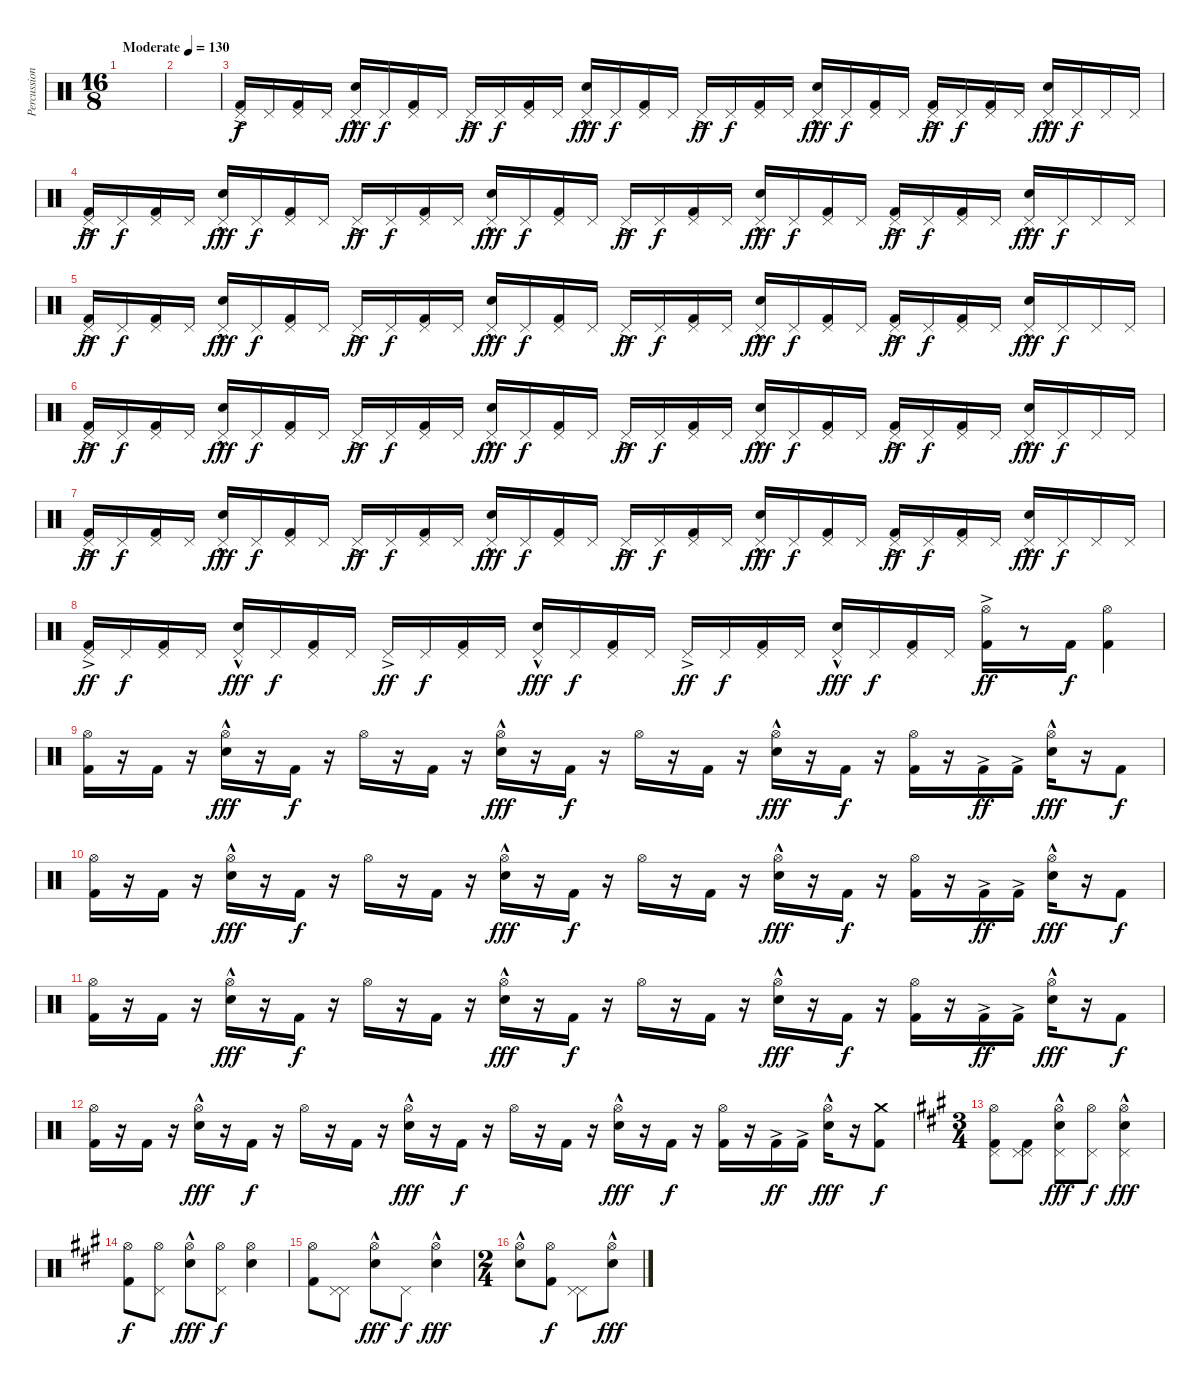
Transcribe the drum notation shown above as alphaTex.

\track ("Percussion" "Percussion") {instrument percussion bank 110}
\staff {score}
\articulation defaults
\ts (16 8)
\tempo (130 "Moderate")
\clef neutral
\ks c
|
|
("Pedal Hi-Hat (hit)"{ac} "Kick (hit) 2").16 "Pedal Hi-Hat (hit)".16{dy f} ("Pedal Hi-Hat (hit)" "Kick (hit) 2").16 "Pedal Hi-Hat (hit)".16 ("Pedal Hi-Hat (hit)"{hac} "Electric Snare (hit)"{hac}).16{dy fff} "Pedal Hi-Hat (hit)".16{dy f} ("Pedal Hi-Hat (hit)" "Kick (hit) 2").16 "Pedal Hi-Hat (hit)".16 "Pedal Hi-Hat (hit)"{ac}.16{dy ff} "Pedal Hi-Hat (hit)".16{dy f} ("Pedal Hi-Hat (hit)" "Kick (hit) 2").16 "Pedal Hi-Hat (hit)".16 ("Pedal Hi-Hat (hit)"{hac} "Electric Snare (hit)"{hac}).16{dy fff} "Pedal Hi-Hat (hit)".16{dy f} ("Pedal Hi-Hat (hit)" "Kick (hit) 2").16 "Pedal Hi-Hat (hit)".16 "Pedal Hi-Hat (hit)"{ac}.16{dy ff} "Pedal Hi-Hat (hit)".16{dy f} ("Pedal Hi-Hat (hit)" "Kick (hit) 2").16 "Pedal Hi-Hat (hit)".16 ("Pedal Hi-Hat (hit)"{hac} "Electric Snare (hit)"{hac}).16{dy fff} "Pedal Hi-Hat (hit)".16{dy f} ("Pedal Hi-Hat (hit)" "Kick (hit) 2").16 "Pedal Hi-Hat (hit)".16 ("Pedal Hi-Hat (hit)"{ac} "Kick (hit) 2").16{dy ff} "Pedal Hi-Hat (hit)".16{dy f} ("Pedal Hi-Hat (hit)" "Kick (hit) 2").16 "Pedal Hi-Hat (hit)".16 ("Pedal Hi-Hat (hit)"{hac} "Electric Snare (hit)"{hac}).16{dy fff} "Pedal Hi-Hat (hit)".16{dy f} "Pedal Hi-Hat (hit)".16 "Pedal Hi-Hat (hit)".16 |
("Pedal Hi-Hat (hit)"{ac} "Kick (hit) 2").16{dy ff} "Pedal Hi-Hat (hit)".16{dy f} ("Pedal Hi-Hat (hit)" "Kick (hit) 2").16 "Pedal Hi-Hat (hit)".16 ("Pedal Hi-Hat (hit)"{hac} "Electric Snare (hit)"{hac}).16{dy fff} "Pedal Hi-Hat (hit)".16{dy f} ("Pedal Hi-Hat (hit)" "Kick (hit) 2").16 "Pedal Hi-Hat (hit)".16 "Pedal Hi-Hat (hit)"{ac}.16{dy ff} "Pedal Hi-Hat (hit)".16{dy f} ("Pedal Hi-Hat (hit)" "Kick (hit) 2").16 "Pedal Hi-Hat (hit)".16 ("Pedal Hi-Hat (hit)"{hac} "Electric Snare (hit)"{hac}).16{dy fff} "Pedal Hi-Hat (hit)".16{dy f} ("Pedal Hi-Hat (hit)" "Kick (hit) 2").16 "Pedal Hi-Hat (hit)".16 "Pedal Hi-Hat (hit)"{ac}.16{dy ff} "Pedal Hi-Hat (hit)".16{dy f} ("Pedal Hi-Hat (hit)" "Kick (hit) 2").16 "Pedal Hi-Hat (hit)".16 ("Pedal Hi-Hat (hit)"{hac} "Electric Snare (hit)"{hac}).16{dy fff} "Pedal Hi-Hat (hit)".16{dy f} ("Pedal Hi-Hat (hit)" "Kick (hit) 2").16 "Pedal Hi-Hat (hit)".16 ("Pedal Hi-Hat (hit)"{ac} "Kick (hit) 2").16{dy ff} "Pedal Hi-Hat (hit)".16{dy f} ("Pedal Hi-Hat (hit)" "Kick (hit) 2").16 "Pedal Hi-Hat (hit)".16 ("Pedal Hi-Hat (hit)"{hac} "Electric Snare (hit)"{hac}).16{dy fff} "Pedal Hi-Hat (hit)".16{dy f} "Pedal Hi-Hat (hit)".16 "Pedal Hi-Hat (hit)".16 |
("Pedal Hi-Hat (hit)"{ac} "Kick (hit) 2").16{dy ff} "Pedal Hi-Hat (hit)".16{dy f} ("Pedal Hi-Hat (hit)" "Kick (hit) 2").16 "Pedal Hi-Hat (hit)".16 ("Pedal Hi-Hat (hit)"{hac} "Electric Snare (hit)"{hac}).16{dy fff} "Pedal Hi-Hat (hit)".16{dy f} ("Pedal Hi-Hat (hit)" "Kick (hit) 2").16 "Pedal Hi-Hat (hit)".16 "Pedal Hi-Hat (hit)"{ac}.16{dy ff} "Pedal Hi-Hat (hit)".16{dy f} ("Pedal Hi-Hat (hit)" "Kick (hit) 2").16 "Pedal Hi-Hat (hit)".16 ("Pedal Hi-Hat (hit)"{hac} "Electric Snare (hit)"{hac}).16{dy fff} "Pedal Hi-Hat (hit)".16{dy f} ("Pedal Hi-Hat (hit)" "Kick (hit) 2").16 "Pedal Hi-Hat (hit)".16 "Pedal Hi-Hat (hit)"{ac}.16{dy ff} "Pedal Hi-Hat (hit)".16{dy f} ("Pedal Hi-Hat (hit)" "Kick (hit) 2").16 "Pedal Hi-Hat (hit)".16 ("Pedal Hi-Hat (hit)"{hac} "Electric Snare (hit)"{hac}).16{dy fff} "Pedal Hi-Hat (hit)".16{dy f} ("Pedal Hi-Hat (hit)" "Kick (hit) 2").16 "Pedal Hi-Hat (hit)".16 ("Pedal Hi-Hat (hit)"{ac} "Kick (hit) 2").16{dy ff} "Pedal Hi-Hat (hit)".16{dy f} ("Pedal Hi-Hat (hit)" "Kick (hit) 2").16 "Pedal Hi-Hat (hit)".16 ("Pedal Hi-Hat (hit)"{hac} "Electric Snare (hit)"{hac}).16{dy fff} "Pedal Hi-Hat (hit)".16{dy f} "Pedal Hi-Hat (hit)".16 "Pedal Hi-Hat (hit)".16 |
("Pedal Hi-Hat (hit)"{ac} "Kick (hit) 2").16{dy ff} "Pedal Hi-Hat (hit)".16{dy f} ("Pedal Hi-Hat (hit)" "Kick (hit) 2").16 "Pedal Hi-Hat (hit)".16 ("Pedal Hi-Hat (hit)"{hac} "Electric Snare (hit)"{hac}).16{dy fff} "Pedal Hi-Hat (hit)".16{dy f} ("Pedal Hi-Hat (hit)" "Kick (hit) 2").16 "Pedal Hi-Hat (hit)".16 "Pedal Hi-Hat (hit)"{ac}.16{dy ff} "Pedal Hi-Hat (hit)".16{dy f} ("Pedal Hi-Hat (hit)" "Kick (hit) 2").16 "Pedal Hi-Hat (hit)".16 ("Pedal Hi-Hat (hit)"{hac} "Electric Snare (hit)"{hac}).16{dy fff} "Pedal Hi-Hat (hit)".16{dy f} ("Pedal Hi-Hat (hit)" "Kick (hit) 2").16 "Pedal Hi-Hat (hit)".16 "Pedal Hi-Hat (hit)"{ac}.16{dy ff} "Pedal Hi-Hat (hit)".16{dy f} ("Pedal Hi-Hat (hit)" "Kick (hit) 2").16 "Pedal Hi-Hat (hit)".16 ("Pedal Hi-Hat (hit)"{hac} "Electric Snare (hit)"{hac}).16{dy fff} "Pedal Hi-Hat (hit)".16{dy f} ("Pedal Hi-Hat (hit)" "Kick (hit) 2").16 "Pedal Hi-Hat (hit)".16 ("Pedal Hi-Hat (hit)"{ac} "Kick (hit) 2").16{dy ff} "Pedal Hi-Hat (hit)".16{dy f} ("Pedal Hi-Hat (hit)" "Kick (hit) 2").16 "Pedal Hi-Hat (hit)".16 ("Pedal Hi-Hat (hit)"{hac} "Electric Snare (hit)"{hac}).16{dy fff} "Pedal Hi-Hat (hit)".16{dy f} "Pedal Hi-Hat (hit)".16 "Pedal Hi-Hat (hit)".16 |
("Pedal Hi-Hat (hit)"{ac} "Kick (hit) 2").16{dy ff} "Pedal Hi-Hat (hit)".16{dy f} ("Pedal Hi-Hat (hit)" "Kick (hit) 2").16 "Pedal Hi-Hat (hit)".16 ("Pedal Hi-Hat (hit)"{hac} "Electric Snare (hit)"{hac}).16{dy fff} "Pedal Hi-Hat (hit)".16{dy f} ("Pedal Hi-Hat (hit)" "Kick (hit) 2").16 "Pedal Hi-Hat (hit)".16 "Pedal Hi-Hat (hit)"{ac}.16{dy ff} "Pedal Hi-Hat (hit)".16{dy f} ("Pedal Hi-Hat (hit)" "Kick (hit) 2").16 "Pedal Hi-Hat (hit)".16 ("Pedal Hi-Hat (hit)"{hac} "Electric Snare (hit)"{hac}).16{dy fff} "Pedal Hi-Hat (hit)".16{dy f} ("Pedal Hi-Hat (hit)" "Kick (hit) 2").16 "Pedal Hi-Hat (hit)".16 "Pedal Hi-Hat (hit)"{ac}.16{dy ff} "Pedal Hi-Hat (hit)".16{dy f} ("Pedal Hi-Hat (hit)" "Kick (hit) 2").16 "Pedal Hi-Hat (hit)".16 ("Pedal Hi-Hat (hit)"{hac} "Electric Snare (hit)"{hac}).16{dy fff} "Pedal Hi-Hat (hit)".16{dy f} ("Pedal Hi-Hat (hit)" "Kick (hit) 2").16 "Pedal Hi-Hat (hit)".16 ("Pedal Hi-Hat (hit)"{ac} "Kick (hit) 2").16{dy ff} "Pedal Hi-Hat (hit)".16{dy f} ("Pedal Hi-Hat (hit)" "Kick (hit) 2").16 "Pedal Hi-Hat (hit)".16 ("Pedal Hi-Hat (hit)"{hac} "Electric Snare (hit)"{hac}).16{dy fff} "Pedal Hi-Hat (hit)".16{dy f} "Pedal Hi-Hat (hit)".16 "Pedal Hi-Hat (hit)".16 |
("Pedal Hi-Hat (hit)"{ac} "Kick (hit) 2").16{dy ff} "Pedal Hi-Hat (hit)".16{dy f} ("Pedal Hi-Hat (hit)" "Kick (hit) 2").16 "Pedal Hi-Hat (hit)".16 ("Pedal Hi-Hat (hit)"{hac} "Electric Snare (hit)"{hac}).16{dy fff} "Pedal Hi-Hat (hit)".16{dy f} ("Pedal Hi-Hat (hit)" "Kick (hit) 2").16 "Pedal Hi-Hat (hit)".16 "Pedal Hi-Hat (hit)"{ac}.16{dy ff} "Pedal Hi-Hat (hit)".16{dy f} ("Pedal Hi-Hat (hit)" "Kick (hit) 2").16 "Pedal Hi-Hat (hit)".16 ("Pedal Hi-Hat (hit)"{hac} "Electric Snare (hit)"{hac}).16{dy fff} "Pedal Hi-Hat (hit)".16{dy f} ("Pedal Hi-Hat (hit)" "Kick (hit) 2").16 "Pedal Hi-Hat (hit)".16 "Pedal Hi-Hat (hit)"{ac}.16{dy ff} "Pedal Hi-Hat (hit)".16{dy f} ("Pedal Hi-Hat (hit)" "Kick (hit) 2").16 "Pedal Hi-Hat (hit)".16 ("Pedal Hi-Hat (hit)"{hac} "Electric Snare (hit)"{hac}).16{dy fff} "Pedal Hi-Hat (hit)".16{dy f} ("Pedal Hi-Hat (hit)" "Kick (hit) 2").16 "Pedal Hi-Hat (hit)".16 ("Hi-Hat (open)"{ac} "Kick (hit) 2").16{dy ff} r.8 "Kick (hit) 2".16{dy f} ("Hi-Hat (open)" "Kick (hit) 2").4 |
("Hi-Hat (open)" "Kick (hit) 2").16 r.16 "Kick (hit) 2".16 r.16 ("Hi-Hat (open)" "Electric Snare (hit)"{hac}).16{dy fff} r.16 "Kick (hit) 2".16{dy f} r.16 "Hi-Hat (open)".16 r.16 "Kick (hit) 2".16 r.16 ("Hi-Hat (open)" "Electric Snare (hit)"{hac}).16{dy fff} r.16 "Kick (hit) 2".16{dy f} r.16 "Hi-Hat (open)".16 r.16 "Kick (hit) 2".16 r.16 ("Hi-Hat (open)" "Electric Snare (hit)"{hac}).16{dy fff} r.16 "Kick (hit) 2".16{dy f} r.16 ("Hi-Hat (open)" "Kick (hit) 2").16 r.16 "Kick (hit) 2"{ac}.16{dy ff} "Kick (hit) 2"{ac}.16 ("Hi-Hat (open)" "Electric Snare (hit)"{hac}).16{dy fff} r.16 "Kick (hit) 2".8{dy f} |
("Hi-Hat (open)" "Kick (hit) 2").16 r.16 "Kick (hit) 2".16 r.16 ("Hi-Hat (open)" "Electric Snare (hit)"{hac}).16{dy fff} r.16 "Kick (hit) 2".16{dy f} r.16 "Hi-Hat (open)".16 r.16 "Kick (hit) 2".16 r.16 ("Hi-Hat (open)" "Electric Snare (hit)"{hac}).16{dy fff} r.16 "Kick (hit) 2".16{dy f} r.16 "Hi-Hat (open)".16 r.16 "Kick (hit) 2".16 r.16 ("Hi-Hat (open)" "Electric Snare (hit)"{hac}).16{dy fff} r.16 "Kick (hit) 2".16{dy f} r.16 ("Hi-Hat (open)" "Kick (hit) 2").16 r.16 "Kick (hit) 2"{ac}.16{dy ff} "Kick (hit) 2"{ac}.16 ("Hi-Hat (open)" "Electric Snare (hit)"{hac}).16{dy fff} r.16 "Kick (hit) 2".8{dy f} |
("Hi-Hat (open)" "Kick (hit) 2").16 r.16 "Kick (hit) 2".16 r.16 ("Hi-Hat (open)" "Electric Snare (hit)"{hac}).16{dy fff} r.16 "Kick (hit) 2".16{dy f} r.16 "Hi-Hat (open)".16 r.16 "Kick (hit) 2".16 r.16 ("Hi-Hat (open)" "Electric Snare (hit)"{hac}).16{dy fff} r.16 "Kick (hit) 2".16{dy f} r.16 "Hi-Hat (open)".16 r.16 "Kick (hit) 2".16 r.16 ("Hi-Hat (open)" "Electric Snare (hit)"{hac}).16{dy fff} r.16 "Kick (hit) 2".16{dy f} r.16 ("Hi-Hat (open)" "Kick (hit) 2").16 r.16 "Kick (hit) 2"{ac}.16{dy ff} "Kick (hit) 2"{ac}.16 ("Hi-Hat (open)" "Electric Snare (hit)"{hac}).16{dy fff} r.16 "Kick (hit) 2".8{dy f} |
("Hi-Hat (open)" "Kick (hit) 2").16 r.16 "Kick (hit) 2".16 r.16 ("Hi-Hat (open)" "Electric Snare (hit)"{hac}).16{dy fff} r.16 "Kick (hit) 2".16{dy f} r.16 "Hi-Hat (open)".16 r.16 "Kick (hit) 2".16 r.16 ("Hi-Hat (open)" "Electric Snare (hit)"{hac}).16{dy fff} r.16 "Kick (hit) 2".16{dy f} r.16 "Hi-Hat (open)".16 r.16 "Kick (hit) 2".16 r.16 ("Hi-Hat (open)" "Electric Snare (hit)"{hac}).16{dy fff} r.16 "Kick (hit) 2".16{dy f} r.16 ("Hi-Hat (open)" "Kick (hit) 2").16 r.16 "Kick (hit) 2"{ac}.16{dy ff} "Kick (hit) 2"{ac}.16 ("Hi-Hat (open)" "Electric Snare (hit)"{hac}).16{dy fff} r.16 ("Kick (hit) 2" "Crash medium (hit)").8{dy f} |
\ts (3 4)
\ks a
("Hi-Hat (open)" "Kick (hit) 2" "Pedal Hi-Hat (hit)").8 ("Pedal Hi-Hat (hit)" "Pedal Hi-Hat (hit)" "Kick (hit) 2").8 ("Hi-Hat (open)" "Electric Snare (hit)"{hac} "Pedal Hi-Hat (hit)").8{dy fff} ("Hi-Hat (open)" "Pedal Hi-Hat (hit)").8{dy f} ("Hi-Hat (open)" "Electric Snare (hit)"{hac} "Pedal Hi-Hat (hit)"{hac}).4{dy fff} |
("Hi-Hat (open)" "Kick (hit) 2").8{dy f} ("Pedal Hi-Hat (hit)" "Hi-Hat (open)").8 ("Electric Snare (hit)"{hac} "Hi-Hat (open)").8{dy fff} ("Pedal Hi-Hat (hit)" "Hi-Hat (open)").8{dy f} ("Hi-Hat (open)" "Electric Snare (hit)").4 |
("Hi-Hat (open)" "Kick (hit) 2").8 ("Pedal Hi-Hat (hit)" "Pedal Hi-Hat (hit)").8 ("Hi-Hat (open)" "Electric Snare (hit)"{hac}).8{dy fff} "Pedal Hi-Hat (hit)".8{dy f} ("Hi-Hat (open)" "Electric Snare (hit)"{hac}).4{dy fff} |
\ts (2 4)
("Electric Snare (hit)"{hac} "Hi-Hat (open)").8 ("Kick (hit) 2" "Hi-Hat (open)").8{dy f} ("Pedal Hi-Hat (hit)" "Pedal Hi-Hat (hit)").8 ("Electric Snare (hit)"{hac} "Hi-Hat (open)").8{dy fff}
